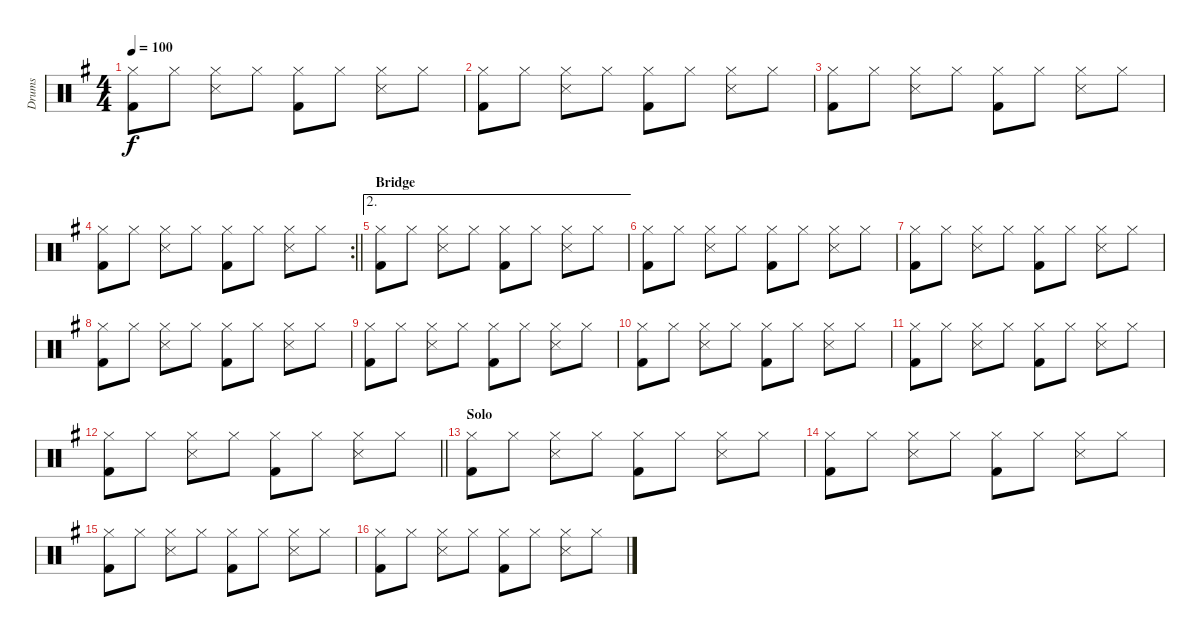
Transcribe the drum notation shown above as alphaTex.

\track ("Drums" "Drums") {instrument percussion}
\staff {score}
\articulation defaults
\ts (4 4)
\tempo 100
\clef neutral
\ks g
("Hi-Hat (closed)" "Kick (hit) 2").8{dy f} "Hi-Hat (closed)".8 ("Hi-Hat (closed)" "Snare (side stick) 3").8 "Hi-Hat (closed)".8 ("Hi-Hat (closed)" "Kick (hit) 2").8 "Hi-Hat (closed)".8 ("Hi-Hat (closed)" "Snare (side stick) 3").8 "Hi-Hat (closed)".8 |
("Hi-Hat (closed)" "Kick (hit) 2").8 "Hi-Hat (closed)".8 ("Hi-Hat (closed)" "Snare (side stick) 3").8 "Hi-Hat (closed)".8 ("Hi-Hat (closed)" "Kick (hit) 2").8 "Hi-Hat (closed)".8 ("Hi-Hat (closed)" "Snare (side stick) 3").8 "Hi-Hat (closed)".8 |
("Hi-Hat (closed)" "Kick (hit) 2").8 "Hi-Hat (closed)".8 ("Hi-Hat (closed)" "Snare (side stick) 3").8 "Hi-Hat (closed)".8 ("Hi-Hat (closed)" "Kick (hit) 2").8 "Hi-Hat (closed)".8 ("Hi-Hat (closed)" "Snare (side stick) 3").8 "Hi-Hat (closed)".8 |
\rc 2
\barLineRight lightlight
("Hi-Hat (closed)" "Kick (hit) 2").8 "Hi-Hat (closed)".8 ("Hi-Hat (closed)" "Snare (side stick) 3").8 "Hi-Hat (closed)".8 ("Hi-Hat (closed)" "Kick (hit) 2").8 "Hi-Hat (closed)".8 ("Hi-Hat (closed)" "Snare (side stick) 3").8 "Hi-Hat (closed)".8 |
\ae 2
\section ("" "Bridge")
("Hi-Hat (closed)" "Kick (hit) 2").8 "Hi-Hat (closed)".8 ("Hi-Hat (closed)" "Snare (side stick) 3").8 "Hi-Hat (closed)".8 ("Hi-Hat (closed)" "Kick (hit) 2").8 "Hi-Hat (closed)".8 ("Hi-Hat (closed)" "Snare (side stick) 3").8 "Hi-Hat (closed)".8 |
("Hi-Hat (closed)" "Kick (hit) 2").8 "Hi-Hat (closed)".8 ("Hi-Hat (closed)" "Snare (side stick) 3").8 "Hi-Hat (closed)".8 ("Hi-Hat (closed)" "Kick (hit) 2").8 "Hi-Hat (closed)".8 ("Hi-Hat (closed)" "Snare (side stick) 3").8 "Hi-Hat (closed)".8 |
("Hi-Hat (closed)" "Kick (hit) 2").8 "Hi-Hat (closed)".8 ("Hi-Hat (closed)" "Snare (side stick) 3").8 "Hi-Hat (closed)".8 ("Hi-Hat (closed)" "Kick (hit) 2").8 "Hi-Hat (closed)".8 ("Hi-Hat (closed)" "Snare (side stick) 3").8 "Hi-Hat (closed)".8 |
("Hi-Hat (closed)" "Kick (hit) 2").8 "Hi-Hat (closed)".8 ("Hi-Hat (closed)" "Snare (side stick) 3").8 "Hi-Hat (closed)".8 ("Hi-Hat (closed)" "Kick (hit) 2").8 "Hi-Hat (closed)".8 ("Hi-Hat (closed)" "Snare (side stick) 3").8 "Hi-Hat (closed)".8 |
("Hi-Hat (closed)" "Kick (hit) 2").8 "Hi-Hat (closed)".8 ("Hi-Hat (closed)" "Snare (side stick) 3").8 "Hi-Hat (closed)".8 ("Hi-Hat (closed)" "Kick (hit) 2").8 "Hi-Hat (closed)".8 ("Hi-Hat (closed)" "Snare (side stick) 3").8 "Hi-Hat (closed)".8 |
("Hi-Hat (closed)" "Kick (hit) 2").8 "Hi-Hat (closed)".8 ("Hi-Hat (closed)" "Snare (side stick) 3").8 "Hi-Hat (closed)".8 ("Hi-Hat (closed)" "Kick (hit) 2").8 "Hi-Hat (closed)".8 ("Hi-Hat (closed)" "Snare (side stick) 3").8 "Hi-Hat (closed)".8 |
("Hi-Hat (closed)" "Kick (hit) 2").8 "Hi-Hat (closed)".8 ("Hi-Hat (closed)" "Snare (side stick) 3").8 "Hi-Hat (closed)".8 ("Hi-Hat (closed)" "Kick (hit) 2").8 "Hi-Hat (closed)".8 ("Hi-Hat (closed)" "Snare (side stick) 3").8 "Hi-Hat (closed)".8 |
\barLineRight lightlight
("Hi-Hat (closed)" "Kick (hit) 2").8 "Hi-Hat (closed)".8 ("Hi-Hat (closed)" "Snare (side stick) 3").8 "Hi-Hat (closed)".8 ("Hi-Hat (closed)" "Kick (hit) 2").8 "Hi-Hat (closed)".8 ("Hi-Hat (closed)" "Snare (side stick) 3").8 "Hi-Hat (closed)".8 |
\section ("" "Solo")
("Hi-Hat (closed)" "Kick (hit) 2").8 "Hi-Hat (closed)".8 ("Hi-Hat (closed)" "Snare (side stick) 3").8 "Hi-Hat (closed)".8 ("Hi-Hat (closed)" "Kick (hit) 2").8 "Hi-Hat (closed)".8 ("Hi-Hat (closed)" "Snare (side stick) 3").8 "Hi-Hat (closed)".8 |
("Hi-Hat (closed)" "Kick (hit) 2").8 "Hi-Hat (closed)".8 ("Hi-Hat (closed)" "Snare (side stick) 3").8 "Hi-Hat (closed)".8 ("Hi-Hat (closed)" "Kick (hit) 2").8 "Hi-Hat (closed)".8 ("Hi-Hat (closed)" "Snare (side stick) 3").8 "Hi-Hat (closed)".8 |
("Hi-Hat (closed)" "Kick (hit) 2").8 "Hi-Hat (closed)".8 ("Hi-Hat (closed)" "Snare (side stick) 3").8 "Hi-Hat (closed)".8 ("Hi-Hat (closed)" "Kick (hit) 2").8 "Hi-Hat (closed)".8 ("Hi-Hat (closed)" "Snare (side stick) 3").8 "Hi-Hat (closed)".8 |
("Hi-Hat (closed)" "Kick (hit) 2").8 "Hi-Hat (closed)".8 ("Hi-Hat (closed)" "Snare (side stick) 3").8 "Hi-Hat (closed)".8 ("Hi-Hat (closed)" "Kick (hit) 2").8 "Hi-Hat (closed)".8 ("Hi-Hat (closed)" "Snare (side stick) 3").8 "Hi-Hat (closed)".8
